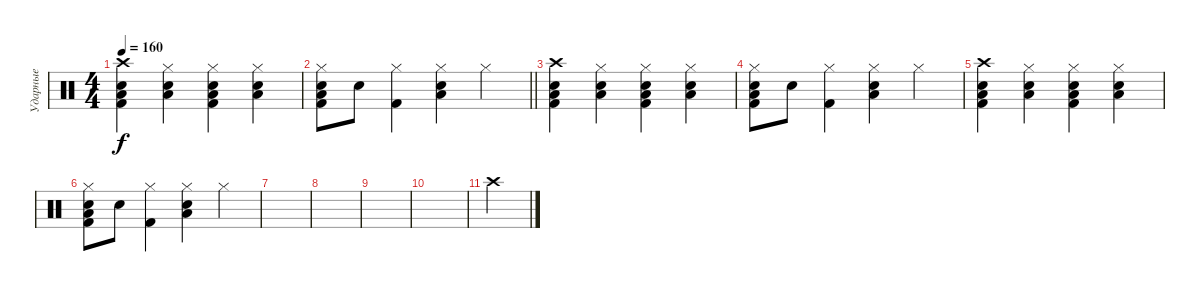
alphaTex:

\track ("Ударные" "Ударные") {instrument percussion}
\staff {score}
\articulation defaults
\ts (4 4)
\tempo 160
\clef neutral
\ks c
("Crash high (hit)" "Kick (hit) 2" "Snare (hit) 2" "Low Floor Tom (hit)").4{dy f} ("Hi-Hat (closed)" "Snare (hit) 2" "Low Floor Tom (hit)").4 ("Hi-Hat (closed)" "Kick (hit) 2" "Snare (hit) 2" "Low Floor Tom (hit)").4 ("Hi-Hat (closed)" "Snare (hit) 2" "Low Floor Tom (hit)").4 |
\barLineRight lightlight
("Hi-Hat (closed)" "Kick (hit) 2" "Snare (hit) 2" "Low Floor Tom (hit)").8 "Snare (hit) 2".8 ("Hi-Hat (closed)" "Kick (hit) 2").4 ("Hi-Hat (closed)" "Snare (hit) 2" "Low Floor Tom (hit)").4 "Hi-Hat (closed)".4 |
("Crash high (hit)" "Kick (hit) 2" "Snare (hit) 2" "Low Floor Tom (hit)").4 ("Hi-Hat (closed)" "Snare (hit) 2" "Low Floor Tom (hit)").4 ("Hi-Hat (closed)" "Kick (hit) 2" "Snare (hit) 2" "Low Floor Tom (hit)").4 ("Hi-Hat (closed)" "Snare (hit) 2" "Low Floor Tom (hit)").4 |
("Hi-Hat (closed)" "Kick (hit) 2" "Snare (hit) 2" "Low Floor Tom (hit)").8 "Snare (hit) 2".8 ("Hi-Hat (closed)" "Kick (hit) 2").4 ("Hi-Hat (closed)" "Snare (hit) 2" "Low Floor Tom (hit)").4 "Hi-Hat (closed)".4 |
("Crash high (hit)" "Kick (hit) 2" "Snare (hit) 2" "Low Floor Tom (hit)").4 ("Hi-Hat (closed)" "Snare (hit) 2" "Low Floor Tom (hit)").4 ("Hi-Hat (closed)" "Kick (hit) 2" "Snare (hit) 2" "Low Floor Tom (hit)").4 ("Hi-Hat (closed)" "Snare (hit) 2" "Low Floor Tom (hit)").4 |
("Hi-Hat (closed)" "Kick (hit) 2" "Snare (hit) 2" "Low Floor Tom (hit)").8 "Snare (hit) 2".8 ("Hi-Hat (closed)" "Kick (hit) 2").4 ("Hi-Hat (closed)" "Snare (hit) 2" "Low Floor Tom (hit)").4 "Hi-Hat (closed)".4 |
|
|
|
|
"Crash high (hit)".4
